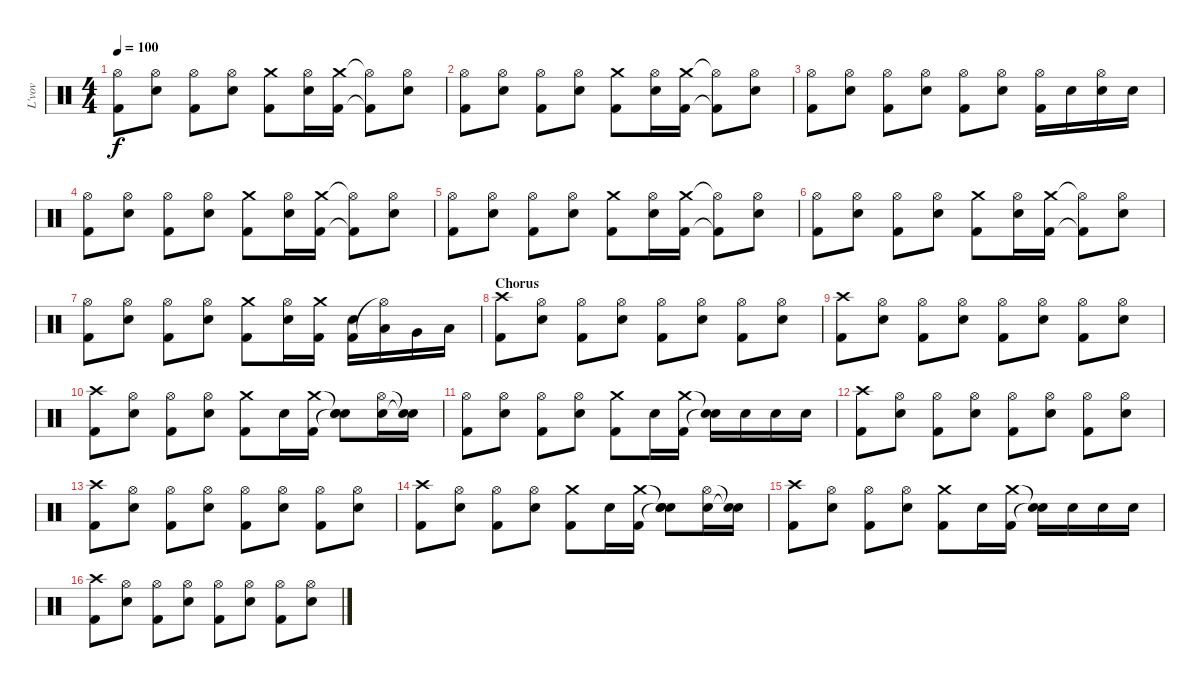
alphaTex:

\track ("L'vov" "L'vov") {instrument percussion}
\staff {score}
\articulation defaults
\ts (4 4)
\tempo 100
\clef neutral
\ks c
("Kick (hit) 2" "Hi-Hat (open)").8{dy f} ("Snare (hit) 2" "Hi-Hat (open)").8 ("Kick (hit) 2" "Hi-Hat (open)").8 ("Snare (hit) 2" "Hi-Hat (open)").8 ("Kick (hit) 2" "Crash medium (hit)").8 ("Snare (hit) 2" "Hi-Hat (open)").16 ("Kick (hit) 2" "Crash medium (hit)").16 ("Kick (hit) 2"{t} "Hi-Hat (open)"{t}).8 ("Snare (hit) 2" "Hi-Hat (open)").8 |
("Kick (hit) 2" "Hi-Hat (open)").8 ("Snare (hit) 2" "Hi-Hat (open)").8 ("Kick (hit) 2" "Hi-Hat (open)").8 ("Snare (hit) 2" "Hi-Hat (open)").8 ("Kick (hit) 2" "Crash medium (hit)").8 ("Snare (hit) 2" "Hi-Hat (open)").16 ("Kick (hit) 2" "Crash medium (hit)").16 ("Kick (hit) 2"{t} "Hi-Hat (open)"{t}).8 ("Snare (hit) 2" "Hi-Hat (open)").8 |
("Kick (hit) 2" "Hi-Hat (open)").8 ("Snare (hit) 2" "Hi-Hat (open)").8 ("Kick (hit) 2" "Hi-Hat (open)").8 ("Snare (hit) 2" "Hi-Hat (open)").8 ("Kick (hit) 2" "Hi-Hat (open)").8 ("Snare (hit) 2" "Hi-Hat (open)").8 ("Kick (hit) 2" "Hi-Hat (open)").16 "Snare (hit) 2".16 ("Snare (hit) 2" "Hi-Hat (open)").16 "Snare (hit) 2".16 |
("Kick (hit) 2" "Hi-Hat (open)").8 ("Snare (hit) 2" "Hi-Hat (open)").8 ("Kick (hit) 2" "Hi-Hat (open)").8 ("Snare (hit) 2" "Hi-Hat (open)").8 ("Kick (hit) 2" "Crash medium (hit)").8 ("Snare (hit) 2" "Hi-Hat (open)").16 ("Kick (hit) 2" "Crash medium (hit)").16 ("Kick (hit) 2"{t} "Hi-Hat (open)"{t}).8 ("Snare (hit) 2" "Hi-Hat (open)").8 |
("Kick (hit) 2" "Hi-Hat (open)").8 ("Snare (hit) 2" "Hi-Hat (open)").8 ("Kick (hit) 2" "Hi-Hat (open)").8 ("Snare (hit) 2" "Hi-Hat (open)").8 ("Kick (hit) 2" "Crash medium (hit)").8 ("Snare (hit) 2" "Hi-Hat (open)").16 ("Kick (hit) 2" "Crash medium (hit)").16 ("Kick (hit) 2"{t} "Hi-Hat (open)"{t}).8 ("Snare (hit) 2" "Hi-Hat (open)").8 |
("Kick (hit) 2" "Hi-Hat (open)").8 ("Snare (hit) 2" "Hi-Hat (open)").8 ("Kick (hit) 2" "Hi-Hat (open)").8 ("Snare (hit) 2" "Hi-Hat (open)").8 ("Kick (hit) 2" "Crash medium (hit)").8 ("Snare (hit) 2" "Hi-Hat (open)").16 ("Kick (hit) 2" "Crash medium (hit)").16 ("Kick (hit) 2"{t} "Hi-Hat (open)"{t}).8 ("Snare (hit) 2" "Hi-Hat (open)").8 |
("Kick (hit) 2" "Hi-Hat (open)").8 ("Snare (hit) 2" "Hi-Hat (open)").8 ("Kick (hit) 2" "Hi-Hat (open)").8 ("Snare (hit) 2" "Hi-Hat (open)").8 ("Kick (hit) 2" "Crash medium (hit)").8 ("Snare (hit) 2" "Hi-Hat (open)").16 ("Kick (hit) 2" "Crash medium (hit)").16 ("Snare (hit) 2" "Kick (hit) 2").16 ("Low Tom (hit)" "Hi-Hat (open)"{t}).16 "Very Low Tom (hit)".16 "Low Floor Tom (hit)".16 |
\section ("" "Chorus")
("Kick (hit) 2" "Crash high (hit)").8 ("Snare (hit) 2" "Hi-Hat (open)").8 ("Kick (hit) 2" "Hi-Hat (open)").8 ("Snare (hit) 2" "Hi-Hat (open)").8 ("Kick (hit) 2" "Hi-Hat (open)").8 ("Snare (hit) 2" "Hi-Hat (open)").8 ("Kick (hit) 2" "Hi-Hat (open)").8 ("Snare (hit) 2" "Hi-Hat (open)").8 |
("Kick (hit) 2" "Crash high (hit)").8 ("Snare (hit) 2" "Hi-Hat (open)").8 ("Kick (hit) 2" "Hi-Hat (open)").8 ("Snare (hit) 2" "Hi-Hat (open)").8 ("Kick (hit) 2" "Hi-Hat (open)").8 ("Snare (hit) 2" "Hi-Hat (open)").8 ("Kick (hit) 2" "Hi-Hat (open)").8 ("Snare (hit) 2" "Hi-Hat (open)").8 |
("Kick (hit) 2" "Crash high (hit)").8 ("Snare (hit) 2" "Hi-Hat (open)").8 ("Kick (hit) 2" "Hi-Hat (open)").8 ("Snare (hit) 2" "Hi-Hat (open)").8 ("Kick (hit) 2" "Crash medium (hit)").8 "Snare (hit) 2".16 ("Kick (hit) 2" "Crash medium (hit)").16 ("Snare (hit)"{t} "Snare (hit)"{t} "Snare (hit)").8 ("Snare (hit) 2" "Hi-Hat (open)").16 ("Snare (hit)"{t} "Snare (hit)"{t}).16 |
("Kick (hit) 2" "Hi-Hat (open)").8 ("Snare (hit) 2" "Hi-Hat (open)").8 ("Kick (hit) 2" "Hi-Hat (open)").8 ("Snare (hit) 2" "Hi-Hat (open)").8 ("Kick (hit) 2" "Crash medium (hit)").8 "Snare (hit) 2".16 ("Kick (hit) 2" "Crash medium (hit)").16 ("Snare (hit)"{t} "Snare (hit)"{t}).16 "Snare (hit) 2".16 "Snare (hit) 2".16 "Snare (hit) 2".16 |
("Kick (hit) 2" "Crash high (hit)").8 ("Snare (hit) 2" "Hi-Hat (open)").8 ("Kick (hit) 2" "Hi-Hat (open)").8 ("Snare (hit) 2" "Hi-Hat (open)").8 ("Kick (hit) 2" "Hi-Hat (open)").8 ("Snare (hit) 2" "Hi-Hat (open)").8 ("Kick (hit) 2" "Hi-Hat (open)").8 ("Snare (hit) 2" "Hi-Hat (open)").8 |
("Kick (hit) 2" "Crash high (hit)").8 ("Snare (hit) 2" "Hi-Hat (open)").8 ("Kick (hit) 2" "Hi-Hat (open)").8 ("Snare (hit) 2" "Hi-Hat (open)").8 ("Kick (hit) 2" "Hi-Hat (open)").8 ("Snare (hit) 2" "Hi-Hat (open)").8 ("Kick (hit) 2" "Hi-Hat (open)").8 ("Snare (hit) 2" "Hi-Hat (open)").8 |
("Kick (hit) 2" "Crash high (hit)").8 ("Snare (hit) 2" "Hi-Hat (open)").8 ("Kick (hit) 2" "Hi-Hat (open)").8 ("Snare (hit) 2" "Hi-Hat (open)").8 ("Kick (hit) 2" "Crash medium (hit)").8 "Snare (hit) 2".16 ("Kick (hit) 2" "Crash medium (hit)").16 ("Snare (hit)"{t} "Snare (hit)"{t} "Snare (hit)").8 ("Snare (hit) 2" "Hi-Hat (open)").16 ("Snare (hit)"{t} "Snare (hit)"{t}).16 |
("Kick (hit) 2" "Crash high (hit)").8 ("Snare (hit) 2" "Hi-Hat (open)").8 ("Kick (hit) 2" "Hi-Hat (open)").8 ("Snare (hit) 2" "Hi-Hat (open)").8 ("Kick (hit) 2" "Crash medium (hit)").8 "Snare (hit) 2".16 ("Kick (hit) 2" "Crash medium (hit)").16 ("Snare (hit)"{t} "Snare (hit)"{t}).16 "Snare (hit) 2".16 "Snare (hit) 2".16 "Snare (hit) 2".16 |
("Kick (hit) 2" "Crash high (hit)").8 ("Snare (hit) 2" "Hi-Hat (open)").8 ("Kick (hit) 2" "Hi-Hat (open)").8 ("Snare (hit) 2" "Hi-Hat (open)").8 ("Kick (hit) 2" "Hi-Hat (open)").8 ("Snare (hit) 2" "Hi-Hat (open)").8 ("Kick (hit) 2" "Hi-Hat (open)").8 ("Snare (hit) 2" "Hi-Hat (open)").8
